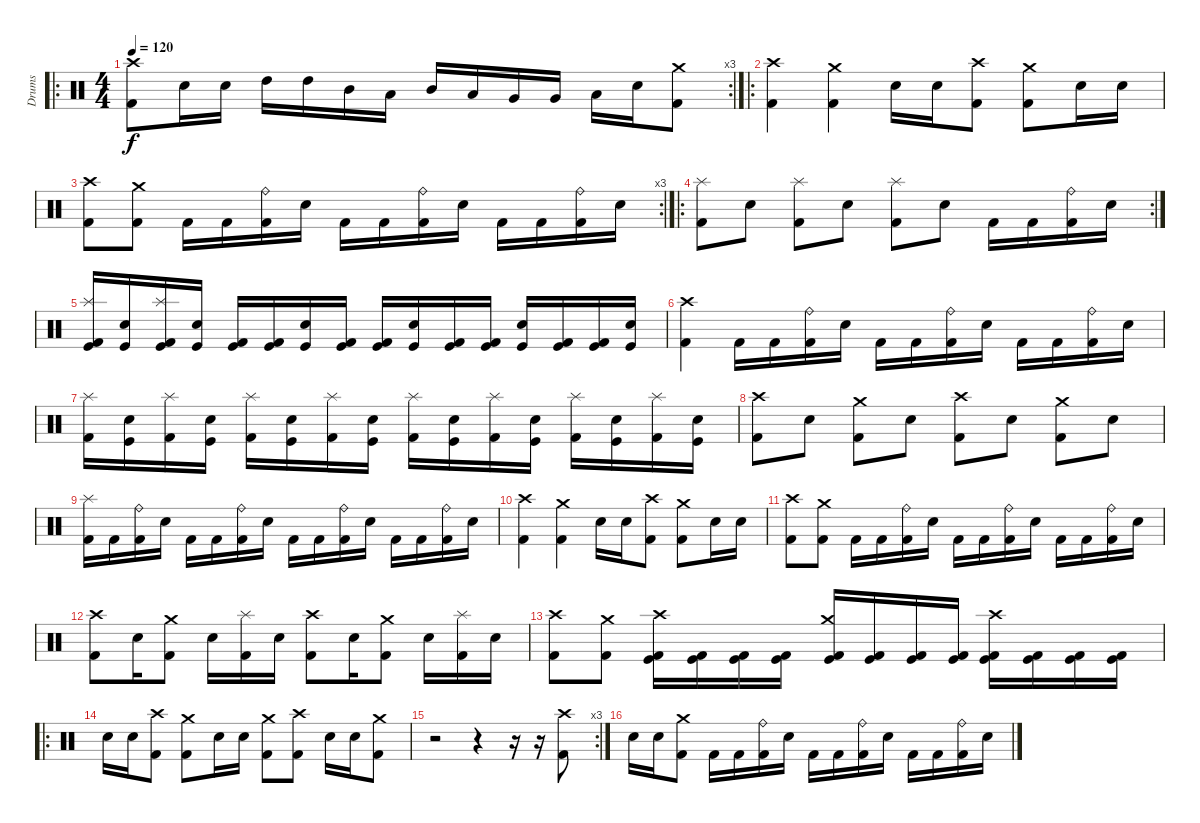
\track ("Drums" "Drums") {instrument percussion}
\staff {score}
\articulation defaults
\ro
\rc 3
\ts (4 4)
\tempo 120
\clef neutral
\ks c
("Crash high (hit)" "Kick (hit) 2").8{dy f} "Electric Snare (hit)".16 "Electric Snare (hit)".16 "High Tom (hit)".16 "High Tom (hit)".16 "Mid Tom (hit)".16 "Low Tom (hit)".16 "Mid Tom (hit)".16 "Low Tom (hit)".16 "Very Low Tom (hit)".16 "Very Low Tom (hit)".16 "Low Floor Tom (hit)".16 "Electric Snare (hit)".16 ("Crash medium (hit)" "Kick (hit) 2").8 |
\ro
("Crash high (hit)" "Kick (hit) 2").4 ("Crash medium (hit)" "Kick (hit) 2").4 "Electric Snare (hit)".16 "Electric Snare (hit)".16 ("Crash high (hit)" "Kick (hit) 2").8 ("Crash medium (hit)" "Kick (hit) 2").8 "Electric Snare (hit)".16 "Electric Snare (hit)".16 |
\rc 3
("Crash high (hit)" "Kick (hit) 2").8 ("Crash medium (hit)" "Kick (hit) 2").8 "Kick (hit) 2".16 "Kick (hit) 2".16 ("Ride (bell)" "Kick (hit) 2").16 "Electric Snare (hit)".16 "Kick (hit) 2".16 "Kick (hit) 2".16 ("Ride (bell)" "Kick (hit) 2").16 "Electric Snare (hit)".16 "Kick (hit) 2".16 "Kick (hit) 2".16 ("Ride (bell)" "Kick (hit) 2").16 "Electric Snare (hit)".16 |
\ro
\rc 2
("Splash (hit)" "Kick (hit) 2").8 "Electric Snare (hit)".8 ("Splash (hit)" "Kick (hit) 2").8 "Electric Snare (hit)".8 ("Splash (hit)" "Kick (hit) 2").8 "Electric Snare (hit)".8 "Kick (hit) 2".16 "Kick (hit) 2".16 ("Ride (bell)" "Kick (hit) 2").16 "Electric Snare (hit)".16 |
("Splash (hit)" "Kick (hit) 2" "Kick (hit)").16 ("Electric Snare (hit)" "Kick (hit)").16 ("Splash (hit)" "Kick (hit) 2" "Kick (hit)").16 ("Electric Snare (hit)" "Kick (hit)").16 ("Kick (hit) 2" "Kick (hit)").16 ("Kick (hit) 2" "Kick (hit)").16 ("Electric Snare (hit)" "Kick (hit)").16 ("Kick (hit) 2" "Kick (hit)").16 ("Kick (hit) 2" "Kick (hit)").16 ("Electric Snare (hit)" "Kick (hit)").16 ("Kick (hit) 2" "Kick (hit)").16 ("Kick (hit) 2" "Kick (hit)").16 ("Electric Snare (hit)" "Kick (hit)").16 ("Kick (hit) 2" "Kick (hit)").16 ("Kick (hit) 2" "Kick (hit)").16 ("Electric Snare (hit)" "Kick (hit)").16 |
("Crash high (hit)" "Kick (hit) 2").4 "Kick (hit) 2".16 "Kick (hit) 2".16 ("Ride (bell)" "Kick (hit) 2").16 "Electric Snare (hit)".16 "Kick (hit) 2".16 "Kick (hit) 2".16 ("Ride (bell)" "Kick (hit) 2").16 "Electric Snare (hit)".16 "Kick (hit) 2".16 "Kick (hit) 2".16 ("Ride (bell)" "Kick (hit) 2").16 "Electric Snare (hit)".16 |
("Splash (hit)" "Kick (hit) 2").16 ("Electric Snare (hit)" "Kick (hit)").16 ("Splash (hit)" "Kick (hit) 2").16 ("Electric Snare (hit)" "Kick (hit)").16 ("Splash (hit)" "Kick (hit) 2").16 ("Electric Snare (hit)" "Kick (hit)").16 ("Splash (hit)" "Kick (hit) 2").16 ("Electric Snare (hit)" "Kick (hit)").16 ("Splash (hit)" "Kick (hit) 2").16 ("Electric Snare (hit)" "Kick (hit)").16 ("Splash (hit)" "Kick (hit) 2").16 ("Electric Snare (hit)" "Kick (hit)").16 ("Splash (hit)" "Kick (hit) 2").16 ("Electric Snare (hit)" "Kick (hit)").16 ("Splash (hit)" "Kick (hit) 2").16 ("Electric Snare (hit)" "Kick (hit)").16 |
("Crash high (hit)" "Kick (hit) 2").8 "Electric Snare (hit)".8 ("Crash medium (hit)" "Kick (hit) 2").8 "Electric Snare (hit)".8 ("Crash high (hit)" "Kick (hit) 2").8 "Electric Snare (hit)".8 ("Crash medium (hit)" "Kick (hit) 2").8 "Electric Snare (hit)".8 |
("Splash (hit)" "Kick (hit) 2").16 "Kick (hit) 2".16 ("Ride (bell)" "Kick (hit) 2").16 "Electric Snare (hit)".16 "Kick (hit) 2".16 "Kick (hit) 2".16 ("Ride (bell)" "Kick (hit) 2").16 "Electric Snare (hit)".16 "Kick (hit) 2".16 "Kick (hit) 2".16 ("Ride (bell)" "Kick (hit) 2").16 "Electric Snare (hit)".16 "Kick (hit) 2".16 "Kick (hit) 2".16 ("Ride (bell)" "Kick (hit) 2").16 "Electric Snare (hit)".16 |
("Crash high (hit)" "Kick (hit) 2").4 ("Crash medium (hit)" "Kick (hit) 2").4 "Electric Snare (hit)".16 "Electric Snare (hit)".16 ("Crash high (hit)" "Kick (hit) 2").8 ("Crash medium (hit)" "Kick (hit) 2").8 "Electric Snare (hit)".16 "Electric Snare (hit)".16 |
("Crash high (hit)" "Kick (hit) 2").8 ("Crash medium (hit)" "Kick (hit) 2").8 "Kick (hit) 2".16 "Kick (hit) 2".16 ("Ride (bell)" "Kick (hit) 2").16 "Electric Snare (hit)".16 "Kick (hit) 2".16 "Kick (hit) 2".16 ("Ride (bell)" "Kick (hit) 2").16 "Electric Snare (hit)".16 "Kick (hit) 2".16 "Kick (hit) 2".16 ("Ride (bell)" "Kick (hit) 2").16 "Electric Snare (hit)".16 |
("Crash high (hit)" "Kick (hit) 2").8 "Electric Snare (hit)".16 ("Crash medium (hit)" "Kick (hit) 2").8 "Electric Snare (hit)".16 ("Splash (hit)" "Kick (hit) 2").16 "Electric Snare (hit)".16 ("Crash high (hit)" "Kick (hit) 2").8 "Electric Snare (hit)".16 ("Crash medium (hit)" "Kick (hit) 2").8 "Electric Snare (hit)".16 ("Splash (hit)" "Kick (hit) 2").16 "Electric Snare (hit)".16 |
("Crash high (hit)" "Kick (hit) 2").8 ("Crash medium (hit)" "Kick (hit) 2").8 ("Crash high (hit)" "Kick (hit)" "Kick (hit) 2").16 ("Kick (hit)" "Kick (hit) 2").16 ("Kick (hit)" "Kick (hit) 2").16 ("Kick (hit)" "Kick (hit) 2").16 ("Crash medium (hit)" "Kick (hit)" "Kick (hit) 2").16 ("Kick (hit)" "Kick (hit) 2").16 ("Kick (hit)" "Kick (hit) 2").16 ("Kick (hit)" "Kick (hit) 2").16 ("Crash high (hit)" "Kick (hit)" "Kick (hit) 2").16 ("Kick (hit)" "Kick (hit) 2").16 ("Kick (hit)" "Kick (hit) 2").16 ("Kick (hit)" "Kick (hit) 2").16 |
\ro "Electric Snare (hit)".16 "Electric Snare (hit)".16
("Crash high (hit)" "Kick (hit) 2").8 ("Crash medium (hit)" "Kick (hit) 2").8 "Electric Snare (hit)".16 "Electric Snare (hit)".16 ("Crash medium (hit)" "Kick (hit) 2").8 ("Crash high (hit)" "Kick (hit) 2").8 "Electric Snare (hit)".16 "Electric Snare (hit)".16 ("Crash medium (hit)" "Kick (hit) 2").8 |
\rc 3
r.2 r.4 r.16 r.16 ("Crash high (hit)" "Kick (hit) 2").8 |
"Electric Snare (hit)".16 "Electric Snare (hit)".16 ("Crash medium (hit)" "Kick (hit) 2").8 "Kick (hit) 2".16 "Kick (hit) 2".16 ("Ride (bell)" "Kick (hit) 2").16 "Electric Snare (hit)".16 "Kick (hit) 2".16 "Kick (hit) 2".16 ("Ride (bell)" "Kick (hit) 2").16 "Electric Snare (hit)".16 "Kick (hit) 2".16 "Kick (hit) 2".16 ("Ride (bell)" "Kick (hit) 2").16 "Electric Snare (hit)".16
